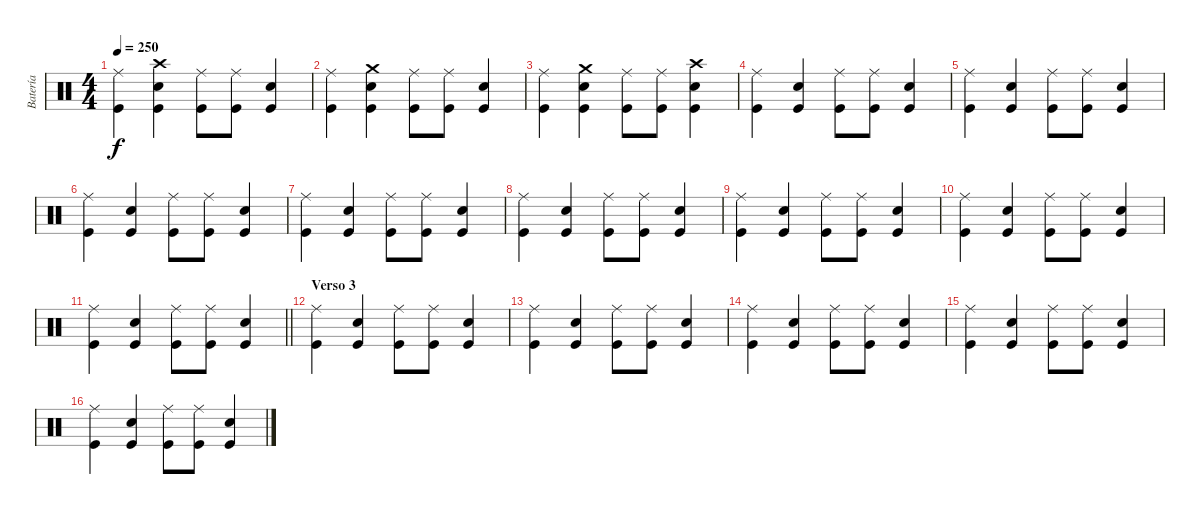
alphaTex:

\track ("Batería" "Batería") {instrument percussion}
\staff {score}
\articulation defaults
\ts (4 4)
\tempo 250
\clef neutral
\ks c
("Ride (middle)" "Kick (hit)").4{dy f} ("Electric Snare (hit)" "Crash high (hit)" "Kick (hit)").4 ("Ride (middle)" "Kick (hit)").8 ("Ride (middle)" "Kick (hit)").8 ("Electric Snare (hit)" "Kick (hit)").4 |
("Ride (middle)" "Kick (hit)").4 ("Electric Snare (hit)" "Crash medium (hit)" "Kick (hit)").4 ("Ride (middle)" "Kick (hit)").8 ("Ride (middle)" "Kick (hit)").8 ("Electric Snare (hit)" "Kick (hit)").4 |
("Ride (middle)" "Kick (hit)").4 ("Electric Snare (hit)" "Crash medium (hit)" "Kick (hit)").4 ("Ride (middle)" "Kick (hit)").8 ("Ride (middle)" "Kick (hit)").8 ("Electric Snare (hit)" "Crash high (hit)" "Kick (hit)").4 |
("Ride (middle)" "Kick (hit)").4 ("Electric Snare (hit)" "Kick (hit)").4 ("Ride (middle)" "Kick (hit)").8 ("Ride (middle)" "Kick (hit)").8 ("Electric Snare (hit)" "Kick (hit)").4 |
("Ride (middle)" "Kick (hit)").4 ("Electric Snare (hit)" "Kick (hit)").4 ("Ride (middle)" "Kick (hit)").8 ("Ride (middle)" "Kick (hit)").8 ("Electric Snare (hit)" "Kick (hit)").4 |
("Ride (middle)" "Kick (hit)").4 ("Electric Snare (hit)" "Kick (hit)").4 ("Ride (middle)" "Kick (hit)").8 ("Ride (middle)" "Kick (hit)").8 ("Electric Snare (hit)" "Kick (hit)").4 |
("Ride (middle)" "Kick (hit)").4 ("Electric Snare (hit)" "Kick (hit)").4 ("Ride (middle)" "Kick (hit)").8 ("Ride (middle)" "Kick (hit)").8 ("Electric Snare (hit)" "Kick (hit)").4 |
("Ride (middle)" "Kick (hit)").4 ("Electric Snare (hit)" "Kick (hit)").4 ("Ride (middle)" "Kick (hit)").8 ("Ride (middle)" "Kick (hit)").8 ("Electric Snare (hit)" "Kick (hit)").4 |
("Ride (middle)" "Kick (hit)").4 ("Electric Snare (hit)" "Kick (hit)").4 ("Ride (middle)" "Kick (hit)").8 ("Ride (middle)" "Kick (hit)").8 ("Electric Snare (hit)" "Kick (hit)").4 |
("Ride (middle)" "Kick (hit)").4 ("Electric Snare (hit)" "Kick (hit)").4 ("Ride (middle)" "Kick (hit)").8 ("Ride (middle)" "Kick (hit)").8 ("Electric Snare (hit)" "Kick (hit)").4 |
\barLineRight lightlight
("Ride (middle)" "Kick (hit)").4 ("Electric Snare (hit)" "Kick (hit)").4 ("Ride (middle)" "Kick (hit)").8 ("Ride (middle)" "Kick (hit)").8 ("Electric Snare (hit)" "Kick (hit)").4 |
\section ("" "Verso 3")
("Ride (middle)" "Kick (hit)").4 ("Electric Snare (hit)" "Kick (hit)").4 ("Ride (middle)" "Kick (hit)").8 ("Ride (middle)" "Kick (hit)").8 ("Electric Snare (hit)" "Kick (hit)").4 |
("Ride (middle)" "Kick (hit)").4 ("Electric Snare (hit)" "Kick (hit)").4 ("Ride (middle)" "Kick (hit)").8 ("Ride (middle)" "Kick (hit)").8 ("Electric Snare (hit)" "Kick (hit)").4 |
("Ride (middle)" "Kick (hit)").4 ("Electric Snare (hit)" "Kick (hit)").4 ("Ride (middle)" "Kick (hit)").8 ("Ride (middle)" "Kick (hit)").8 ("Electric Snare (hit)" "Kick (hit)").4 |
("Ride (middle)" "Kick (hit)").4 ("Electric Snare (hit)" "Kick (hit)").4 ("Ride (middle)" "Kick (hit)").8 ("Ride (middle)" "Kick (hit)").8 ("Electric Snare (hit)" "Kick (hit)").4 |
("Ride (middle)" "Kick (hit)").4 ("Electric Snare (hit)" "Kick (hit)").4 ("Ride (middle)" "Kick (hit)").8 ("Ride (middle)" "Kick (hit)").8 ("Electric Snare (hit)" "Kick (hit)").4
